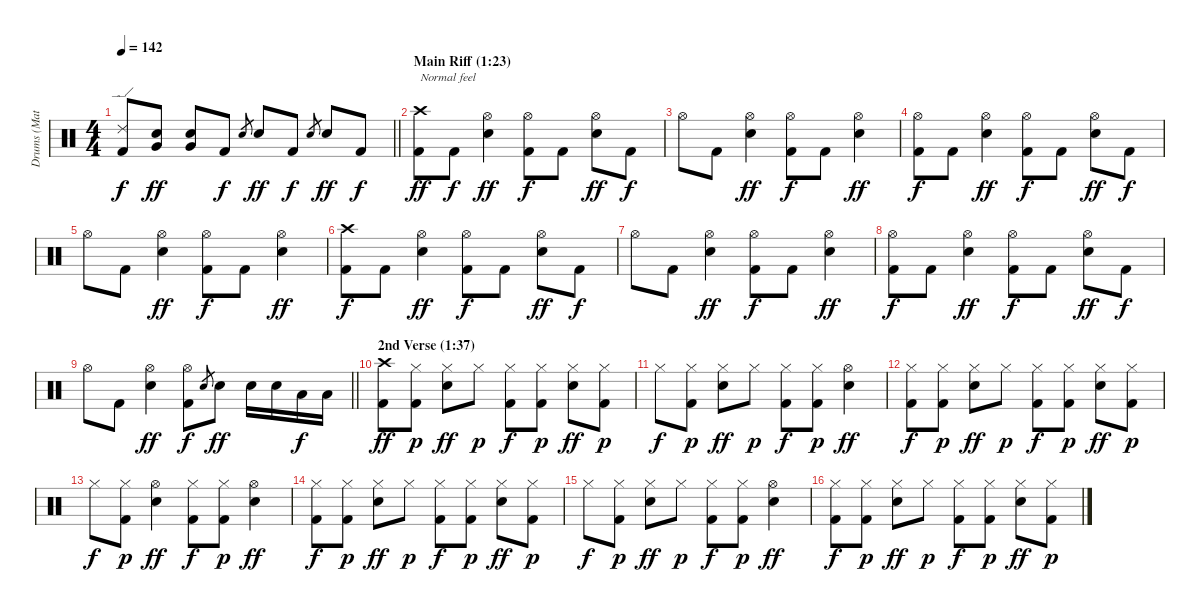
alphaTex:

\track ("Drums (Matt Sorum)" "Drums (Mat") {instrument percussion}
\staff {score}
\articulation defaults
\ts (4 4)
\tempo 142
\clef neutral
\barLineRight lightlight
\ks c
("Ride (edge) 2" "Kick (hit) 2").8{dy f} ("Very Low Tom (hit)" "Snare (hit) 2").8{dy ff} ("Very Low Tom (hit)" "Snare (hit) 2").8 "Kick (hit) 2".8{dy f} "Snare (hit) 2".8{gr} "Snare (hit) 2".8{dy ff} "Kick (hit) 2".8{dy f} "Snare (hit) 2".8{gr} "Snare (hit) 2".8{dy ff} "Kick (hit) 2".8{dy f} |
\section ("" "Main Riff (1:23)")
("Crash high (hit)" "Kick (hit) 2").8{txt "Normal feel" dy ff} "Kick (hit) 2".8{dy f} ("Hi-Hat (open)" "Snare (hit) 2").4{dy ff} ("Hi-Hat (open)" "Kick (hit) 2").8{dy f} "Kick (hit) 2".8 ("Hi-Hat (open)" "Snare (hit) 2").8{dy ff} "Kick (hit) 2".8{dy f} |
"Hi-Hat (open)".8 "Kick (hit) 2".8 ("Hi-Hat (open)" "Snare (hit) 2").4{dy ff} ("Hi-Hat (open)" "Kick (hit) 2").8{dy f} "Kick (hit) 2".8 ("Hi-Hat (open)" "Snare (hit) 2").4{dy ff} |
("Hi-Hat (open)" "Kick (hit) 2").8{dy f} "Kick (hit) 2".8 ("Hi-Hat (open)" "Snare (hit) 2").4{dy ff} ("Hi-Hat (open)" "Kick (hit) 2").8{dy f} "Kick (hit) 2".8 ("Hi-Hat (open)" "Snare (hit) 2").8{dy ff} "Kick (hit) 2".8{dy f} |
"Hi-Hat (open)".8 "Kick (hit) 2".8 ("Hi-Hat (open)" "Snare (hit) 2").4{dy ff} ("Hi-Hat (open)" "Kick (hit) 2").8{dy f} "Kick (hit) 2".8 ("Hi-Hat (open)" "Snare (hit) 2").4{dy ff} |
("Crash high (hit)" "Kick (hit) 2").8{dy f} "Kick (hit) 2".8 ("Hi-Hat (open)" "Snare (hit) 2").4{dy ff} ("Hi-Hat (open)" "Kick (hit) 2").8{dy f} "Kick (hit) 2".8 ("Hi-Hat (open)" "Snare (hit) 2").8{dy ff} "Kick (hit) 2".8{dy f} |
"Hi-Hat (open)".8 "Kick (hit) 2".8 ("Hi-Hat (open)" "Snare (hit) 2").4{dy ff} ("Hi-Hat (open)" "Kick (hit) 2").8{dy f} "Kick (hit) 2".8 ("Hi-Hat (open)" "Snare (hit) 2").4{dy ff} |
("Hi-Hat (open)" "Kick (hit) 2").8{dy f} "Kick (hit) 2".8 ("Hi-Hat (open)" "Snare (hit) 2").4{dy ff} ("Hi-Hat (open)" "Kick (hit) 2").8{dy f} "Kick (hit) 2".8 ("Hi-Hat (open)" "Snare (hit) 2").8{dy ff} "Kick (hit) 2".8{dy f} |
\barLineRight lightlight "Hi-Hat (open)".8 "Kick (hit) 2".8
("Hi-Hat (open)" "Snare (hit) 2").4{dy ff} ("Hi-Hat (open)" "Kick (hit) 2").8{dy f} "Snare (hit) 2".8{gr} "Snare (hit) 2".8{dy ff} "Snare (hit) 2".16 "Snare (hit) 2".16 "Low Tom (hit)".16{dy f} "Low Tom (hit)".16 |
\section ("" "2nd Verse (1:37)")
("Crash high (hit)" "Kick (hit) 2").8{dy ff} ("Hi-Hat (closed)" "Kick (hit) 2").8{dy p} ("Hi-Hat (closed)" "Snare (hit) 2").8{dy ff} "Hi-Hat (closed)".8{dy p} ("Hi-Hat (closed)" "Kick (hit) 2").8{dy f} ("Hi-Hat (closed)" "Kick (hit) 2").8{dy p} ("Hi-Hat (closed)" "Snare (hit) 2").8{dy ff} ("Hi-Hat (closed)" "Kick (hit) 2").8{dy p} |
"Hi-Hat (closed)".8{dy f} ("Hi-Hat (closed)" "Kick (hit) 2").8{dy p} ("Hi-Hat (closed)" "Snare (hit) 2").8{dy ff} "Hi-Hat (closed)".8{dy p} ("Hi-Hat (closed)" "Kick (hit) 2").8{dy f} ("Hi-Hat (closed)" "Kick (hit) 2").8{dy p} ("Hi-Hat (open)" "Snare (hit) 2").4{dy ff} |
("Hi-Hat (closed)" "Kick (hit) 2").8{dy f} ("Hi-Hat (closed)" "Kick (hit) 2").8{dy p} ("Hi-Hat (closed)" "Snare (hit) 2").8{dy ff} "Hi-Hat (closed)".8{dy p} ("Hi-Hat (closed)" "Kick (hit) 2").8{dy f} ("Hi-Hat (closed)" "Kick (hit) 2").8{dy p} ("Hi-Hat (closed)" "Snare (hit) 2").8{dy ff} ("Hi-Hat (closed)" "Kick (hit) 2").8{dy p} |
"Hi-Hat (closed)".8{dy f} ("Hi-Hat (closed)" "Kick (hit) 2").8{dy p} ("Hi-Hat (open)" "Snare (hit) 2").4{dy ff} ("Hi-Hat (closed)" "Kick (hit) 2").8{dy f} ("Hi-Hat (closed)" "Kick (hit) 2").8{dy p} ("Hi-Hat (open)" "Snare (hit) 2").4{dy ff} |
("Hi-Hat (closed)" "Kick (hit) 2").8{dy f} ("Hi-Hat (closed)" "Kick (hit) 2").8{dy p} ("Hi-Hat (closed)" "Snare (hit) 2").8{dy ff} "Hi-Hat (closed)".8{dy p} ("Hi-Hat (closed)" "Kick (hit) 2").8{dy f} ("Hi-Hat (closed)" "Kick (hit) 2").8{dy p} ("Hi-Hat (closed)" "Snare (hit) 2").8{dy ff} ("Hi-Hat (closed)" "Kick (hit) 2").8{dy p} |
"Hi-Hat (closed)".8{dy f} ("Hi-Hat (closed)" "Kick (hit) 2").8{dy p} ("Hi-Hat (closed)" "Snare (hit) 2").8{dy ff} "Hi-Hat (closed)".8{dy p} ("Hi-Hat (closed)" "Kick (hit) 2").8{dy f} ("Hi-Hat (closed)" "Kick (hit) 2").8{dy p} ("Hi-Hat (open)" "Snare (hit) 2").4{dy ff} |
("Hi-Hat (closed)" "Kick (hit) 2").8{dy f} ("Hi-Hat (closed)" "Kick (hit) 2").8{dy p} ("Hi-Hat (closed)" "Snare (hit) 2").8{dy ff} "Hi-Hat (closed)".8{dy p} ("Hi-Hat (closed)" "Kick (hit) 2").8{dy f} ("Hi-Hat (closed)" "Kick (hit) 2").8{dy p} ("Hi-Hat (closed)" "Snare (hit) 2").8{dy ff} ("Hi-Hat (closed)" "Kick (hit) 2").8{dy p}
